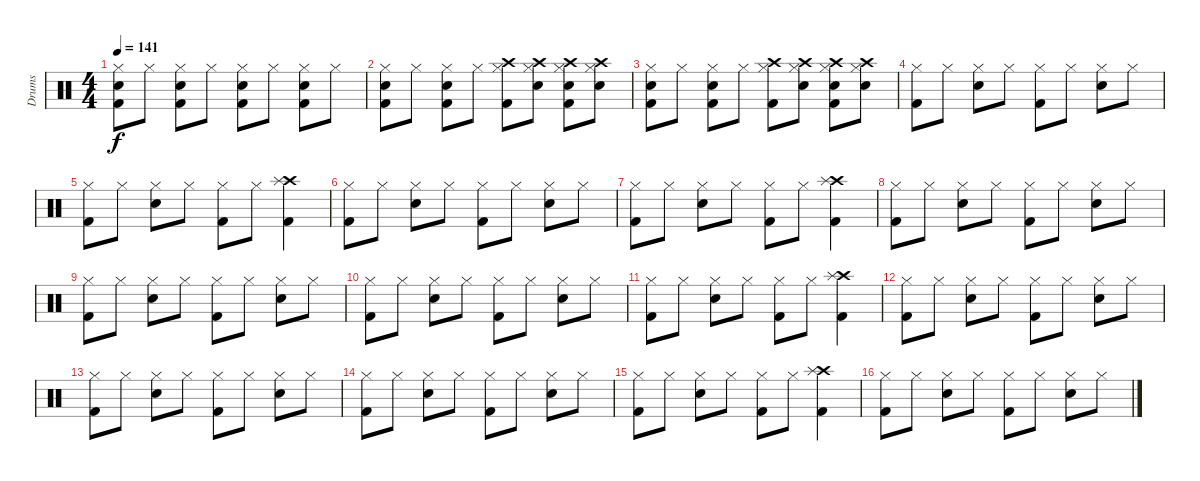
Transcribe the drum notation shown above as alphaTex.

\track ("Drums" "Drums") {instrument percussion}
\staff {score}
\articulation defaults
\ts (4 4)
\tempo 141
\clef neutral
\ks c
("Hi-Hat (closed)" "Electric Snare (hit)" "Kick (hit) 2").8{dy f} "Hi-Hat (closed)".8 ("Hi-Hat (closed)" "Electric Snare (hit)" "Kick (hit) 2").8 "Hi-Hat (closed)".8 ("Hi-Hat (closed)" "Electric Snare (hit)" "Kick (hit) 2").8 "Hi-Hat (closed)".8 ("Hi-Hat (closed)" "Electric Snare (hit)" "Kick (hit) 2").8 "Hi-Hat (closed)".8 |
("Hi-Hat (closed)" "Electric Snare (hit)" "Kick (hit) 2").8 "Hi-Hat (closed)".8 ("Hi-Hat (closed)" "Electric Snare (hit)" "Kick (hit) 2").8 "Hi-Hat (closed)".8 ("Hi-Hat (closed)" "Crash high (hit)" "Kick (hit) 2").8 ("Hi-Hat (closed)" "Crash high (hit)" "Electric Snare (hit)").8 ("Hi-Hat (closed)" "Crash high (hit)" "Electric Snare (hit)" "Kick (hit) 2").8 ("Hi-Hat (closed)" "Crash high (hit)" "Electric Snare (hit)").8 |
("Hi-Hat (closed)" "Electric Snare (hit)" "Kick (hit) 2").8 "Hi-Hat (closed)".8 ("Hi-Hat (closed)" "Electric Snare (hit)" "Kick (hit) 2").8 "Hi-Hat (closed)".8 ("Hi-Hat (closed)" "Crash high (hit)" "Kick (hit) 2").8 ("Hi-Hat (closed)" "Crash high (hit)" "Electric Snare (hit)").8 ("Hi-Hat (closed)" "Crash high (hit)" "Electric Snare (hit)" "Kick (hit) 2").8 ("Hi-Hat (closed)" "Crash high (hit)" "Electric Snare (hit)").8 |
("Hi-Hat (closed)" "Kick (hit) 2").8 "Hi-Hat (closed)".8 ("Hi-Hat (closed)" "Snare (hit) 2").8 "Hi-Hat (closed)".8 ("Hi-Hat (closed)" "Kick (hit) 2").8 "Hi-Hat (closed)".8 ("Hi-Hat (closed)" "Snare (hit) 2").8 "Hi-Hat (closed)".8 |
("Hi-Hat (closed)" "Kick (hit) 2").8 "Hi-Hat (closed)".8 ("Hi-Hat (closed)" "Snare (hit) 2").8 "Hi-Hat (closed)".8 ("Hi-Hat (closed)" "Kick (hit) 2").8 "Hi-Hat (closed)".8 ("Crash high (hit)" "Splash (hit)" "Kick (hit) 2").4 |
("Hi-Hat (closed)" "Kick (hit) 2").8 "Hi-Hat (closed)".8 ("Hi-Hat (closed)" "Snare (hit) 2").8 "Hi-Hat (closed)".8 ("Hi-Hat (closed)" "Kick (hit) 2").8 "Hi-Hat (closed)".8 ("Hi-Hat (closed)" "Snare (hit) 2").8 "Hi-Hat (closed)".8 |
("Hi-Hat (closed)" "Kick (hit) 2").8 "Hi-Hat (closed)".8 ("Hi-Hat (closed)" "Snare (hit) 2").8 "Hi-Hat (closed)".8 ("Hi-Hat (closed)" "Kick (hit) 2").8 "Hi-Hat (closed)".8 ("Crash high (hit)" "Splash (hit)" "Kick (hit) 2").4 |
("Hi-Hat (closed)" "Kick (hit) 2").8 "Hi-Hat (closed)".8 ("Hi-Hat (closed)" "Snare (hit) 2").8 "Hi-Hat (closed)".8 ("Hi-Hat (closed)" "Kick (hit) 2").8 "Hi-Hat (closed)".8 ("Hi-Hat (closed)" "Snare (hit) 2").8 "Hi-Hat (closed)".8 |
("Hi-Hat (closed)" "Kick (hit) 2").8 "Hi-Hat (closed)".8 ("Hi-Hat (closed)" "Snare (hit) 2").8 "Hi-Hat (closed)".8 ("Hi-Hat (closed)" "Kick (hit) 2").8 "Hi-Hat (closed)".8 ("Hi-Hat (closed)" "Snare (hit) 2").8 "Hi-Hat (closed)".8 |
("Hi-Hat (closed)" "Kick (hit) 2").8 "Hi-Hat (closed)".8 ("Hi-Hat (closed)" "Snare (hit) 2").8 "Hi-Hat (closed)".8 ("Hi-Hat (closed)" "Kick (hit) 2").8 "Hi-Hat (closed)".8 ("Hi-Hat (closed)" "Snare (hit) 2").8 "Hi-Hat (closed)".8 |
("Hi-Hat (closed)" "Kick (hit) 2").8 "Hi-Hat (closed)".8 ("Hi-Hat (closed)" "Snare (hit) 2").8 "Hi-Hat (closed)".8 ("Hi-Hat (closed)" "Kick (hit) 2").8 "Hi-Hat (closed)".8 ("Crash high (hit)" "Splash (hit)" "Kick (hit) 2").4 |
("Hi-Hat (closed)" "Kick (hit) 2").8 "Hi-Hat (closed)".8 ("Hi-Hat (closed)" "Snare (hit) 2").8 "Hi-Hat (closed)".8 ("Hi-Hat (closed)" "Kick (hit) 2").8 "Hi-Hat (closed)".8 ("Hi-Hat (closed)" "Snare (hit) 2").8 "Hi-Hat (closed)".8 |
("Hi-Hat (closed)" "Kick (hit) 2").8 "Hi-Hat (closed)".8 ("Hi-Hat (closed)" "Snare (hit) 2").8 "Hi-Hat (closed)".8 ("Hi-Hat (closed)" "Kick (hit) 2").8 "Hi-Hat (closed)".8 ("Hi-Hat (closed)" "Snare (hit) 2").8 "Hi-Hat (closed)".8 |
("Hi-Hat (closed)" "Kick (hit) 2").8 "Hi-Hat (closed)".8 ("Hi-Hat (closed)" "Snare (hit) 2").8 "Hi-Hat (closed)".8 ("Hi-Hat (closed)" "Kick (hit) 2").8 "Hi-Hat (closed)".8 ("Hi-Hat (closed)" "Snare (hit) 2").8 "Hi-Hat (closed)".8 |
("Hi-Hat (closed)" "Kick (hit) 2").8 "Hi-Hat (closed)".8 ("Hi-Hat (closed)" "Snare (hit) 2").8 "Hi-Hat (closed)".8 ("Hi-Hat (closed)" "Kick (hit) 2").8 "Hi-Hat (closed)".8 ("Crash high (hit)" "Splash (hit)" "Kick (hit) 2").4 |
("Hi-Hat (closed)" "Kick (hit) 2").8 "Hi-Hat (closed)".8 ("Hi-Hat (closed)" "Snare (hit) 2").8 "Hi-Hat (closed)".8 ("Hi-Hat (closed)" "Kick (hit) 2").8 "Hi-Hat (closed)".8 ("Hi-Hat (closed)" "Snare (hit) 2").8 "Hi-Hat (closed)".8
